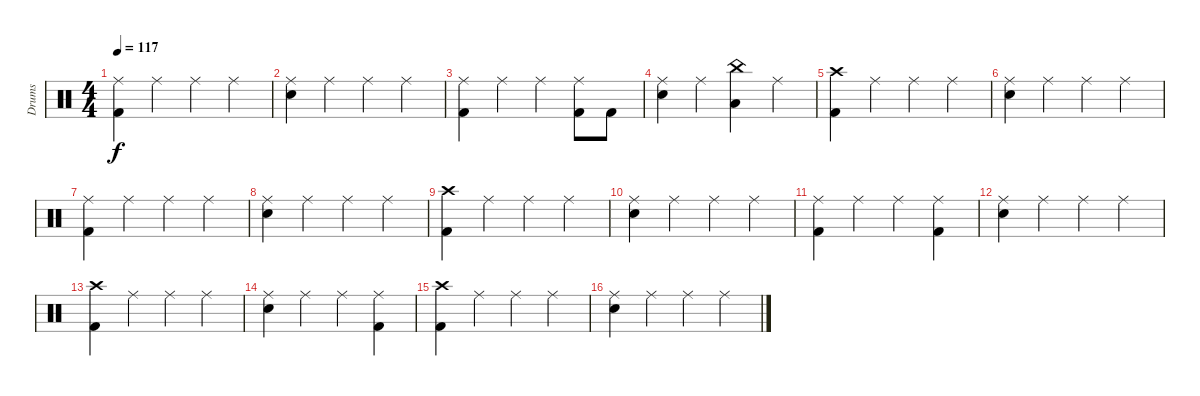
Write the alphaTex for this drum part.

\track ("Drums" "Drums") {instrument percussion}
\staff {score}
\articulation defaults
\ts (4 4)
\tempo 117
\clef neutral
\ks c
("Ride (middle)" "Kick (hit) 2").4{dy f} "Ride (middle)".4 "Ride (middle)".4 "Ride (middle)".4 |
("Ride (middle)" "Snare (hit) 2").4 "Ride (middle)".4 "Ride (middle)".4 "Ride (middle)".4 |
("Ride (middle)" "Kick (hit) 2").4 "Ride (middle)".4 "Ride (middle)".4 ("Ride (middle)" "Kick (hit) 2").8 "Kick (hit) 2".8 |
("Ride (middle)" "Snare (hit) 2").4 "Ride (middle)".4 ("China (hit)" "Low Tom (hit)").4 "Ride (middle)".4 |
("Crash high (hit)" "Kick (hit) 2").4 "Ride (middle)".4 "Ride (middle)".4 "Ride (middle)".4 |
("Ride (middle)" "Snare (hit) 2").4 "Ride (middle)".4 "Ride (middle)".4 "Ride (middle)".4 |
("Ride (middle)" "Kick (hit) 2").4 "Ride (middle)".4 "Ride (middle)".4 "Ride (middle)".4 |
("Ride (middle)" "Snare (hit) 2").4 "Ride (middle)".4 "Ride (middle)".4 "Ride (middle)".4 |
("Crash high (hit)" "Kick (hit) 2").4 "Ride (middle)".4 "Ride (middle)".4 "Ride (middle)".4 |
("Ride (middle)" "Snare (hit) 2").4 "Ride (middle)".4 "Ride (middle)".4 "Ride (middle)".4 |
("Ride (middle)" "Kick (hit) 2").4 "Ride (middle)".4 "Ride (middle)".4 ("Ride (middle)" "Kick (hit) 2").4 |
("Ride (middle)" "Snare (hit) 2").4 "Ride (middle)".4 "Ride (middle)".4 "Ride (middle)".4 |
("Crash high (hit)" "Kick (hit) 2").4 "Ride (middle)".4 "Ride (middle)".4 "Ride (middle)".4 |
("Ride (middle)" "Snare (hit) 2").4 "Ride (middle)".4 "Ride (middle)".4 ("Ride (middle)" "Kick (hit) 2").4 |
("Crash high (hit)" "Kick (hit) 2").4 "Ride (middle)".4 "Ride (middle)".4 "Ride (middle)".4 |
("Ride (middle)" "Snare (hit) 2").4 "Ride (middle)".4 "Ride (middle)".4 "Ride (middle)".4
